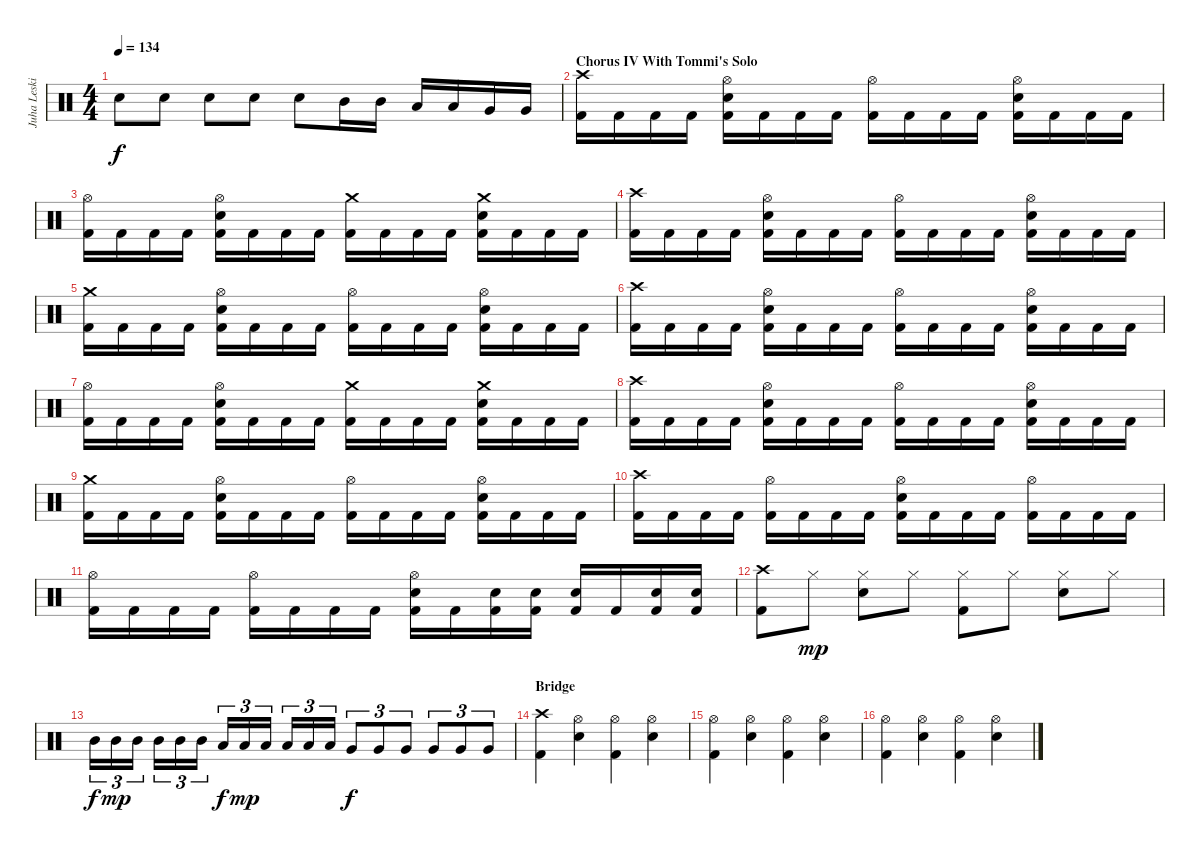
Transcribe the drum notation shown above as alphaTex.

\track ("Juha Leskinen - Drums" "Juha Leski") {instrument percussion}
\staff {score}
\articulation defaults
\ts (4 4)
\tempo 134
\clef neutral
\ks c "Electric Snare (hit)".8{dy f} "Electric Snare (hit)".8 "Electric Snare (hit)".8 "Electric Snare (hit)".8 "Electric Snare (hit)".8 "Mid Tom (hit)".16 "Mid Tom (hit)".16 "Low Tom (hit)".16 "Low Tom (hit)".16 "Very Low Tom (hit)".16 "Very Low Tom (hit)".16
|
\section ("" "Chorus IV With Tommi's Solo")
("Crash high (hit)" "Kick (hit) 2").16 "Kick (hit) 2".16 "Kick (hit) 2".16 "Kick (hit) 2".16 ("Hi-Hat (open)" "Electric Snare (hit)" "Kick (hit) 2").16 "Kick (hit) 2".16 "Kick (hit) 2".16 "Kick (hit) 2".16 ("Hi-Hat (open)" "Kick (hit) 2").16 "Kick (hit) 2".16 "Kick (hit) 2".16 "Kick (hit) 2".16 ("Hi-Hat (open)" "Electric Snare (hit)" "Kick (hit) 2").16 "Kick (hit) 2".16 "Kick (hit) 2".16 "Kick (hit) 2".16 |
("Hi-Hat (open)" "Kick (hit) 2").16 "Kick (hit) 2".16 "Kick (hit) 2".16 "Kick (hit) 2".16 ("Hi-Hat (open)" "Electric Snare (hit)" "Kick (hit) 2").16 "Kick (hit) 2".16 "Kick (hit) 2".16 "Kick (hit) 2".16 ("Crash medium (hit)" "Kick (hit) 2").16 "Kick (hit) 2".16 "Kick (hit) 2".16 "Kick (hit) 2".16 ("Crash medium (hit)" "Electric Snare (hit)" "Kick (hit) 2").16 "Kick (hit) 2".16 "Kick (hit) 2".16 "Kick (hit) 2".16 |
("Crash high (hit)" "Kick (hit) 2").16 "Kick (hit) 2".16 "Kick (hit) 2".16 "Kick (hit) 2".16 ("Hi-Hat (open)" "Electric Snare (hit)" "Kick (hit) 2").16 "Kick (hit) 2".16 "Kick (hit) 2".16 "Kick (hit) 2".16 ("Hi-Hat (open)" "Kick (hit) 2").16 "Kick (hit) 2".16 "Kick (hit) 2".16 "Kick (hit) 2".16 ("Hi-Hat (open)" "Electric Snare (hit)" "Kick (hit) 2").16 "Kick (hit) 2".16 "Kick (hit) 2".16 "Kick (hit) 2".16 |
("Crash medium (hit)" "Kick (hit) 2").16 "Kick (hit) 2".16 "Kick (hit) 2".16 "Kick (hit) 2".16 ("Hi-Hat (open)" "Electric Snare (hit)" "Kick (hit) 2").16 "Kick (hit) 2".16 "Kick (hit) 2".16 "Kick (hit) 2".16 ("Hi-Hat (open)" "Kick (hit) 2").16 "Kick (hit) 2".16 "Kick (hit) 2".16 "Kick (hit) 2".16 ("Hi-Hat (open)" "Electric Snare (hit)" "Kick (hit) 2").16 "Kick (hit) 2".16 "Kick (hit) 2".16 "Kick (hit) 2".16 |
("Crash high (hit)" "Kick (hit) 2").16 "Kick (hit) 2".16 "Kick (hit) 2".16 "Kick (hit) 2".16 ("Hi-Hat (open)" "Electric Snare (hit)" "Kick (hit) 2").16 "Kick (hit) 2".16 "Kick (hit) 2".16 "Kick (hit) 2".16 ("Hi-Hat (open)" "Kick (hit) 2").16 "Kick (hit) 2".16 "Kick (hit) 2".16 "Kick (hit) 2".16 ("Hi-Hat (open)" "Electric Snare (hit)" "Kick (hit) 2").16 "Kick (hit) 2".16 "Kick (hit) 2".16 "Kick (hit) 2".16 |
("Hi-Hat (open)" "Kick (hit) 2").16 "Kick (hit) 2".16 "Kick (hit) 2".16 "Kick (hit) 2".16 ("Hi-Hat (open)" "Electric Snare (hit)" "Kick (hit) 2").16 "Kick (hit) 2".16 "Kick (hit) 2".16 "Kick (hit) 2".16 ("Crash medium (hit)" "Kick (hit) 2").16 "Kick (hit) 2".16 "Kick (hit) 2".16 "Kick (hit) 2".16 ("Crash medium (hit)" "Electric Snare (hit)" "Kick (hit) 2").16 "Kick (hit) 2".16 "Kick (hit) 2".16 "Kick (hit) 2".16 |
("Crash high (hit)" "Kick (hit) 2").16 "Kick (hit) 2".16 "Kick (hit) 2".16 "Kick (hit) 2".16 ("Hi-Hat (open)" "Electric Snare (hit)" "Kick (hit) 2").16 "Kick (hit) 2".16 "Kick (hit) 2".16 "Kick (hit) 2".16 ("Hi-Hat (open)" "Kick (hit) 2").16 "Kick (hit) 2".16 "Kick (hit) 2".16 "Kick (hit) 2".16 ("Hi-Hat (open)" "Electric Snare (hit)" "Kick (hit) 2").16 "Kick (hit) 2".16 "Kick (hit) 2".16 "Kick (hit) 2".16 |
("Crash medium (hit)" "Kick (hit) 2").16 "Kick (hit) 2".16 "Kick (hit) 2".16 "Kick (hit) 2".16 ("Hi-Hat (open)" "Electric Snare (hit)" "Kick (hit) 2").16 "Kick (hit) 2".16 "Kick (hit) 2".16 "Kick (hit) 2".16 ("Hi-Hat (open)" "Kick (hit) 2").16 "Kick (hit) 2".16 "Kick (hit) 2".16 "Kick (hit) 2".16 ("Hi-Hat (open)" "Electric Snare (hit)" "Kick (hit) 2").16 "Kick (hit) 2".16 "Kick (hit) 2".16 "Kick (hit) 2".16 |
("Crash high (hit)" "Kick (hit) 2").16 "Kick (hit) 2".16 "Kick (hit) 2".16 "Kick (hit) 2".16 ("Hi-Hat (open)" "Kick (hit) 2").16 "Kick (hit) 2".16 "Kick (hit) 2".16 "Kick (hit) 2".16 ("Hi-Hat (open)" "Electric Snare (hit)" "Kick (hit) 2").16 "Kick (hit) 2".16 "Kick (hit) 2".16 "Kick (hit) 2".16 ("Hi-Hat (open)" "Kick (hit) 2").16 "Kick (hit) 2".16 "Kick (hit) 2".16 "Kick (hit) 2".16 |
("Hi-Hat (open)" "Kick (hit) 2").16 "Kick (hit) 2".16 "Kick (hit) 2".16 "Kick (hit) 2".16 ("Hi-Hat (open)" "Kick (hit) 2").16 "Kick (hit) 2".16 "Kick (hit) 2".16 "Kick (hit) 2".16 ("Hi-Hat (open)" "Electric Snare (hit)" "Kick (hit) 2").16 "Kick (hit) 2".16 ("Electric Snare (hit)" "Kick (hit) 2").16 ("Electric Snare (hit)" "Kick (hit) 2").16 ("Electric Snare (hit)" "Kick (hit) 2").16 "Kick (hit) 2".16 ("Electric Snare (hit)" "Kick (hit) 2").16 ("Electric Snare (hit)" "Kick (hit) 2").16 |
("Crash high (hit)" "Kick (hit) 2").8 "Hi-Hat (closed)".8{dy mp} ("Hi-Hat (closed)" "Electric Snare (hit)").8 "Hi-Hat (closed)".8 ("Hi-Hat (closed)" "Kick (hit) 2").8 "Hi-Hat (closed)".8 ("Hi-Hat (closed)" "Electric Snare (hit)").8 "Hi-Hat (closed)".8 |
"Mid Tom (hit)".16{tu (3 2) dy f} "Mid Tom (hit)".16{tu (3 2) dy mp} "Mid Tom (hit)".16{tu (3 2)} "Mid Tom (hit)".16{tu (3 2)} "Mid Tom (hit)".16{tu (3 2)} "Mid Tom (hit)".16{tu (3 2)} "Low Tom (hit)".16{tu (3 2) dy f} "Low Tom (hit)".16{tu (3 2) dy mp} "Low Tom (hit)".16{tu (3 2)} "Low Tom (hit)".16{tu (3 2)} "Low Tom (hit)".16{tu (3 2)} "Low Tom (hit)".16{tu (3 2)} "Very Low Tom (hit)".8{tu (3 2) dy f} "Very Low Tom (hit)".8{tu (3 2)} "Very Low Tom (hit)".8{tu (3 2)} "Very Low Tom (hit)".8{tu (3 2)} "Very Low Tom (hit)".8{tu (3 2)} "Very Low Tom (hit)".8{tu (3 2)} |
\section ("" "Bridge")
("Crash high (hit)" "Kick (hit) 2").4 ("Hi-Hat (open)" "Electric Snare (hit)").4 ("Hi-Hat (open)" "Kick (hit) 2").4 ("Hi-Hat (open)" "Electric Snare (hit)").4 |
("Hi-Hat (open)" "Kick (hit) 2").4 ("Hi-Hat (open)" "Electric Snare (hit)").4 ("Hi-Hat (open)" "Kick (hit) 2").4 ("Hi-Hat (open)" "Electric Snare (hit)").4 |
("Hi-Hat (open)" "Kick (hit) 2").4 ("Hi-Hat (open)" "Electric Snare (hit)").4 ("Hi-Hat (open)" "Kick (hit) 2").4 ("Hi-Hat (open)" "Electric Snare (hit)").4
